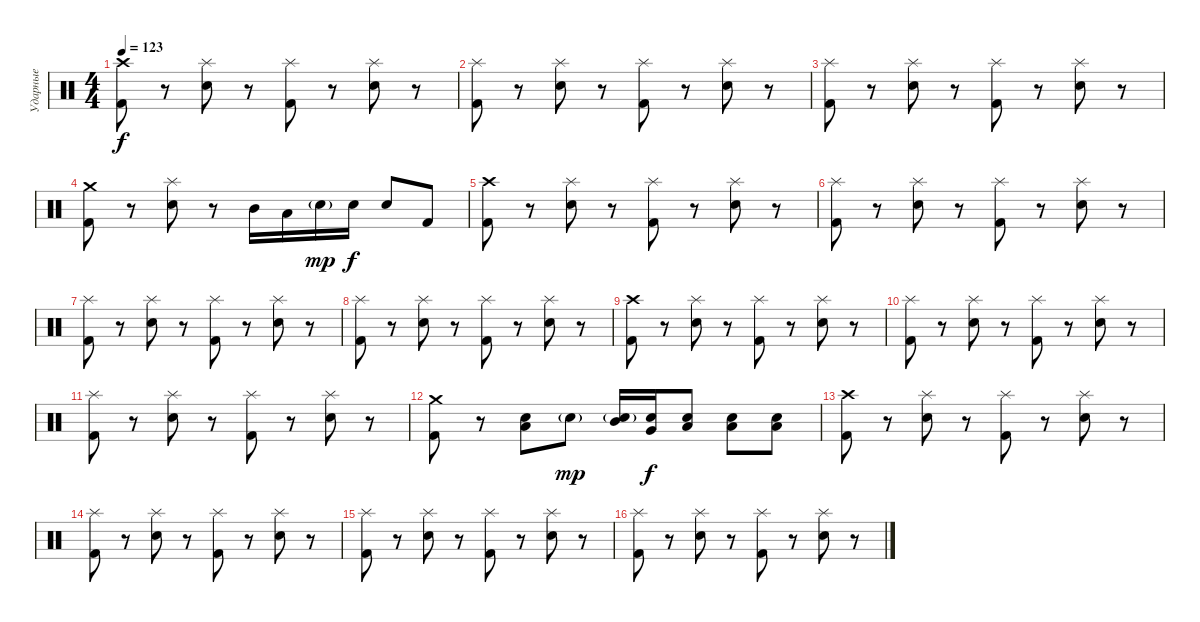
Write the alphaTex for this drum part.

\track ("Ударные" "Ударные") {instrument percussion}
\staff {score}
\articulation defaults
\ts (4 4)
\tempo 123
\clef neutral
\ks c
("Crash high (hit)" "Kick (hit) 2").8{dy f} r.8 ("Splash (hit)" "Electric Snare (hit)").8 r.8 ("Splash (hit)" "Kick (hit) 2").8 r.8 ("Splash (hit)" "Electric Snare (hit)").8 r.8 |
("Splash (hit)" "Kick (hit) 2").8 r.8 ("Splash (hit)" "Electric Snare (hit)").8 r.8 ("Splash (hit)" "Kick (hit) 2").8 r.8 ("Splash (hit)" "Electric Snare (hit)").8 r.8 |
("Splash (hit)" "Kick (hit) 2").8 r.8 ("Splash (hit)" "Electric Snare (hit)").8 r.8 ("Splash (hit)" "Kick (hit) 2").8 r.8 ("Splash (hit)" "Electric Snare (hit)").8 r.8 |
("Crash medium (hit)" "Kick (hit) 2").8 r.8 ("Splash (hit)" "Electric Snare (hit)").8 r.8 "Mid Tom (hit)".16 "Low Tom (hit)".16 "Electric Snare (hit)"{g}.16{dy mp} "Electric Snare (hit)".16{dy f} "Electric Snare (hit)".8 "Kick (hit) 2".8 |
("Crash high (hit)" "Kick (hit) 2").8 r.8 ("Splash (hit)" "Electric Snare (hit)").8 r.8 ("Splash (hit)" "Kick (hit) 2").8 r.8 ("Splash (hit)" "Electric Snare (hit)").8 r.8 |
("Splash (hit)" "Kick (hit) 2").8 r.8 ("Splash (hit)" "Electric Snare (hit)").8 r.8 ("Splash (hit)" "Kick (hit) 2").8 r.8 ("Splash (hit)" "Electric Snare (hit)").8 r.8 |
("Splash (hit)" "Kick (hit) 2").8 r.8 ("Splash (hit)" "Electric Snare (hit)").8 r.8 ("Splash (hit)" "Kick (hit) 2").8 r.8 ("Splash (hit)" "Electric Snare (hit)").8 r.8 |
("Splash (hit)" "Kick (hit) 2").8 r.8 ("Splash (hit)" "Electric Snare (hit)").8 r.8 ("Splash (hit)" "Kick (hit) 2").8 r.8 ("Splash (hit)" "Electric Snare (hit)").8 r.8 |
("Crash high (hit)" "Kick (hit) 2").8 r.8 ("Splash (hit)" "Electric Snare (hit)").8 r.8 ("Splash (hit)" "Kick (hit) 2").8 r.8 ("Splash (hit)" "Electric Snare (hit)").8 r.8 |
("Splash (hit)" "Kick (hit) 2").8 r.8 ("Splash (hit)" "Electric Snare (hit)").8 r.8 ("Splash (hit)" "Kick (hit) 2").8 r.8 ("Splash (hit)" "Electric Snare (hit)").8 r.8 |
("Splash (hit)" "Kick (hit) 2").8 r.8 ("Splash (hit)" "Electric Snare (hit)").8 r.8 ("Splash (hit)" "Kick (hit) 2").8 r.8 ("Splash (hit)" "Electric Snare (hit)").8 r.8 |
("Crash medium (hit)" "Kick (hit) 2").8 r.8 ("Low Tom (hit)" "Electric Snare (hit)").8 "Electric Snare (hit)"{g}.8{dy mp} ("Mid Tom (hit)" "Electric Snare (hit)"{g}).16 ("Very Low Tom (hit)" "Electric Snare (hit)").16{dy f} ("Low Floor Tom (hit)" "Electric Snare (hit)").8 ("Low Floor Tom (hit)" "Electric Snare (hit)").8 ("Low Floor Tom (hit)" "Electric Snare (hit)").8 |
("Crash high (hit)" "Kick (hit) 2").8 r.8 ("Splash (hit)" "Electric Snare (hit)").8 r.8 ("Splash (hit)" "Kick (hit) 2").8 r.8 ("Splash (hit)" "Electric Snare (hit)").8 r.8 |
("Splash (hit)" "Kick (hit) 2").8 r.8 ("Splash (hit)" "Electric Snare (hit)").8 r.8 ("Splash (hit)" "Kick (hit) 2").8 r.8 ("Splash (hit)" "Electric Snare (hit)").8 r.8 |
("Splash (hit)" "Kick (hit) 2").8 r.8 ("Splash (hit)" "Electric Snare (hit)").8 r.8 ("Splash (hit)" "Kick (hit) 2").8 r.8 ("Splash (hit)" "Electric Snare (hit)").8 r.8 |
("Splash (hit)" "Kick (hit) 2").8 r.8 ("Splash (hit)" "Electric Snare (hit)").8 r.8 ("Splash (hit)" "Kick (hit) 2").8 r.8 ("Splash (hit)" "Electric Snare (hit)").8 r.8
